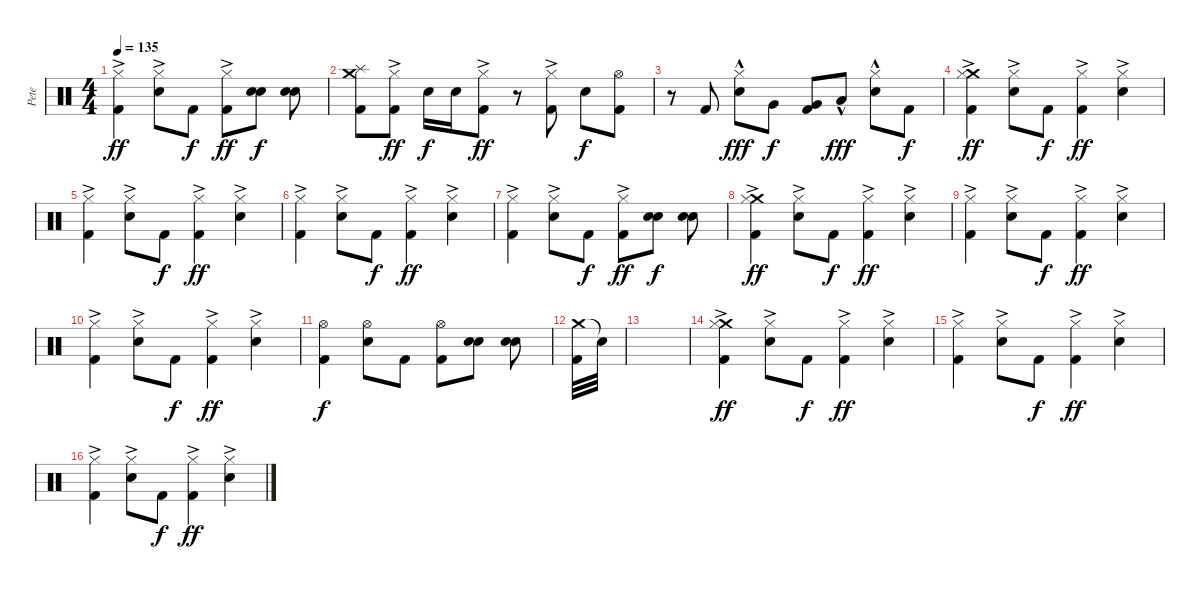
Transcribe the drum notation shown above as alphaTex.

\track ("Pete" "Pete") {instrument percussion}
\staff {score}
\articulation defaults
\ts (4 4)
\tempo 135
\clef neutral
\ks c
("Hi-Hat (closed)"{ac} "Kick (hit) 2").4{dy ff} ("Hi-Hat (closed)"{ac} "Electric Snare (hit)").8 "Kick (hit) 2".8{dy f} ("Hi-Hat (closed)"{ac} "Kick (hit) 2").8{dy ff} ("Electric Snare (hit)" "Electric Snare (hit)").8{dy f} ("Electric Snare (hit)" "Electric Snare (hit)").8 |
("Crash medium (hit)" "Splash (hit)" "Kick (hit) 2").8 ("Hi-Hat (closed)"{ac} "Kick (hit) 2").8{dy ff} "Electric Snare (hit)".16{dy f} "Electric Snare (hit)".16 ("Hi-Hat (closed)"{ac} "Kick (hit) 2").8{dy ff} r.8 ("Hi-Hat (closed)"{ac} "Kick (hit) 2").8 "Electric Snare (hit)".8{dy f} ("Hi-Hat (open)" "Kick (hit) 2").8 |
r.8 "Kick (hit) 2".8 ("Hi-Hat (closed)"{hac} "Electric Snare (hit)").8{dy fff} "Very Low Tom (hit)".8{dy f} ("Very Low Tom (hit)" "Kick (hit) 2").8 "Low Floor Tom (hit)"{hac}.8{dy fff} ("Hi-Hat (closed)"{hac} "Electric Snare (hit)").8 "Kick (hit) 2".8{dy f} |
("Crash medium (hit)" "Hi-Hat (closed)"{ac} "Kick (hit) 2").4{dy ff} ("Hi-Hat (closed)"{ac} "Electric Snare (hit)").8 "Kick (hit) 2".8{dy f} ("Hi-Hat (closed)"{ac} "Kick (hit) 2").4{dy ff} ("Hi-Hat (closed)"{ac} "Electric Snare (hit)").4 |
("Hi-Hat (closed)"{ac} "Kick (hit) 2").4 ("Hi-Hat (closed)"{ac} "Electric Snare (hit)").8 "Kick (hit) 2".8{dy f} ("Hi-Hat (closed)"{ac} "Kick (hit) 2").4{dy ff} ("Hi-Hat (closed)"{ac} "Electric Snare (hit)").4 |
("Hi-Hat (closed)"{ac} "Kick (hit) 2").4 ("Hi-Hat (closed)"{ac} "Electric Snare (hit)").8 "Kick (hit) 2".8{dy f} ("Hi-Hat (closed)"{ac} "Kick (hit) 2").4{dy ff} ("Hi-Hat (closed)"{ac} "Electric Snare (hit)").4 |
("Hi-Hat (closed)"{ac} "Kick (hit) 2").4 ("Hi-Hat (closed)"{ac} "Electric Snare (hit)").8 "Kick (hit) 2".8{dy f} ("Hi-Hat (closed)"{ac} "Kick (hit) 2").8{dy ff} ("Electric Snare (hit)" "Electric Snare (hit)").8{dy f} ("Electric Snare (hit)" "Electric Snare (hit)").8 |
("Crash medium (hit)" "Hi-Hat (closed)"{ac} "Kick (hit) 2").4{dy ff} ("Hi-Hat (closed)"{ac} "Electric Snare (hit)").8 "Kick (hit) 2".8{dy f} ("Hi-Hat (closed)"{ac} "Kick (hit) 2").4{dy ff} ("Hi-Hat (closed)"{ac} "Electric Snare (hit)").4 |
("Hi-Hat (closed)"{ac} "Kick (hit) 2").4 ("Hi-Hat (closed)"{ac} "Electric Snare (hit)").8 "Kick (hit) 2".8{dy f} ("Hi-Hat (closed)"{ac} "Kick (hit) 2").4{dy ff} ("Hi-Hat (closed)"{ac} "Electric Snare (hit)").4 |
("Hi-Hat (closed)"{ac} "Kick (hit) 2").4 ("Hi-Hat (closed)"{ac} "Electric Snare (hit)").8 "Kick (hit) 2".8{dy f} ("Hi-Hat (closed)"{ac} "Kick (hit) 2").4{dy ff} ("Hi-Hat (closed)"{ac} "Electric Snare (hit)").4 |
("Hi-Hat (open)" "Kick (hit) 2").4{dy f} ("Hi-Hat (open)" "Electric Snare (hit)").8 "Kick (hit) 2".8 ("Hi-Hat (open)" "Kick (hit) 2").8 ("Electric Snare (hit)" "Electric Snare (hit)").8 ("Electric Snare (hit)" "Electric Snare (hit)").8 |
("Crash medium (hit)" "Kick (hit) 2").32 "Snare (hit)"{t}.32 |
|
("Crash medium (hit)" "Hi-Hat (closed)"{ac} "Kick (hit) 2").4{dy ff} ("Hi-Hat (closed)"{ac} "Electric Snare (hit)").8 "Kick (hit) 2".8{dy f} ("Hi-Hat (closed)"{ac} "Kick (hit) 2").4{dy ff} ("Hi-Hat (closed)"{ac} "Electric Snare (hit)").4 |
("Hi-Hat (closed)"{ac} "Kick (hit) 2").4 ("Hi-Hat (closed)"{ac} "Electric Snare (hit)").8 "Kick (hit) 2".8{dy f} ("Hi-Hat (closed)"{ac} "Kick (hit) 2").4{dy ff} ("Hi-Hat (closed)"{ac} "Electric Snare (hit)").4 |
("Hi-Hat (closed)"{ac} "Kick (hit) 2").4 ("Hi-Hat (closed)"{ac} "Electric Snare (hit)").8 "Kick (hit) 2".8{dy f} ("Hi-Hat (closed)"{ac} "Kick (hit) 2").4{dy ff} ("Hi-Hat (closed)"{ac} "Electric Snare (hit)").4
